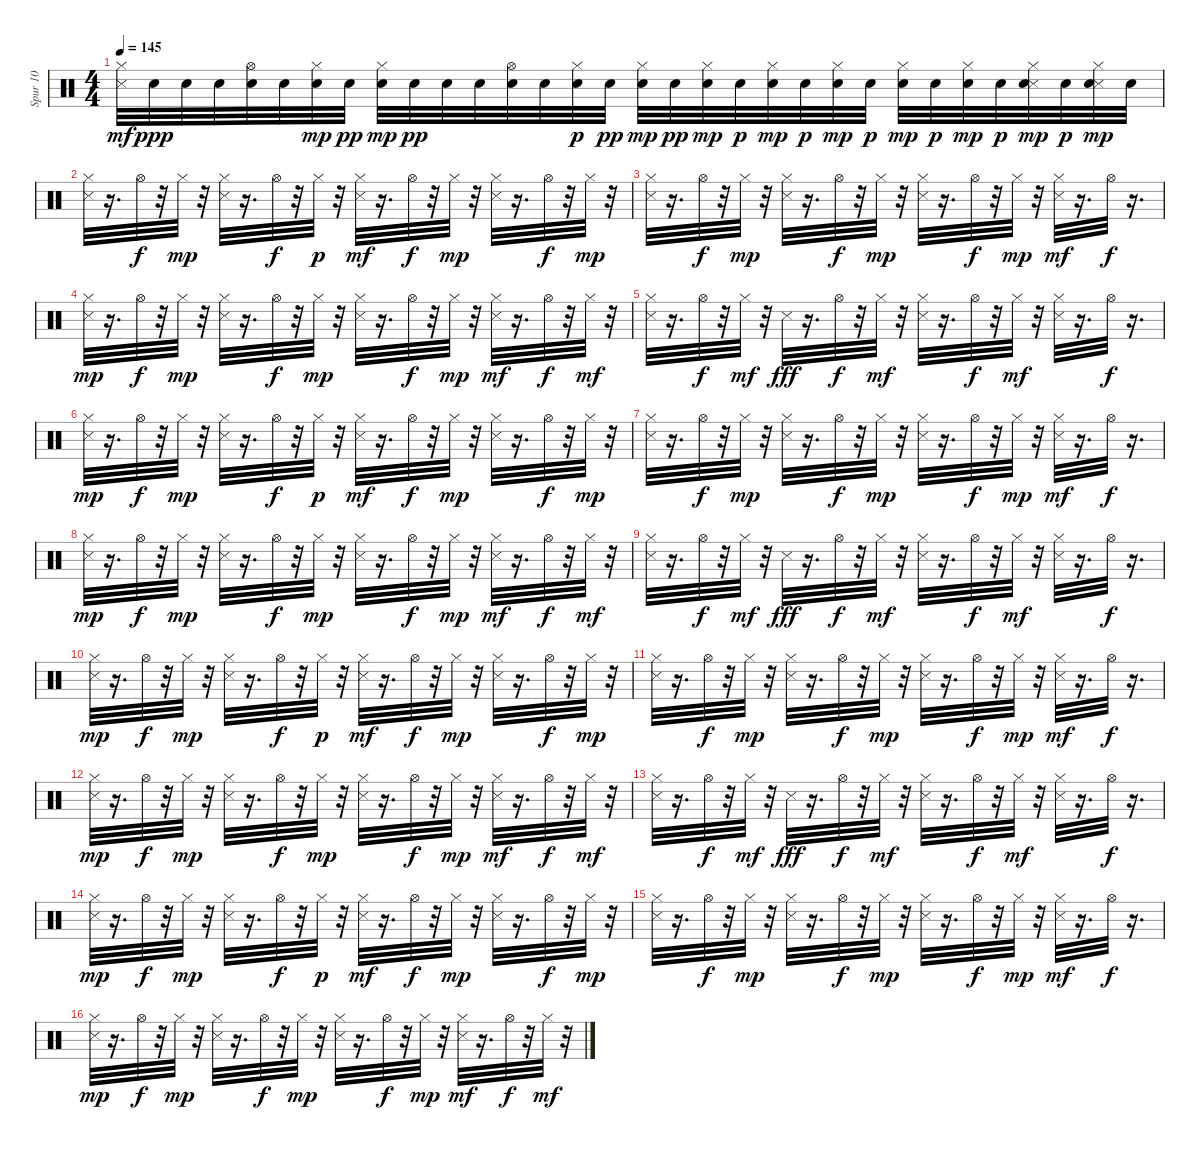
\track ("Spur 10" "Spur 10") {instrument percussion}
\staff {score}
\articulation defaults
\ts (4 4)
\tempo 145
\clef neutral
\ks c
("Metronome (hit)" "Hi-Hat (closed)").32{dy mf} "Snare (hit) 2".32{dy ppp} "Snare (hit) 2".32 "Snare (hit) 2".32 ("Snare (hit) 2" "Hi-Hat (open)").32 "Snare (hit) 2".32 ("Snare (hit) 2" "Hi-Hat (closed)").32{dy mp} "Snare (hit) 2".32{dy pp} ("Snare (hit) 2" "Hi-Hat (closed)").32{dy mp} "Snare (hit) 2".32{dy pp} "Snare (hit) 2".32 "Snare (hit) 2".32 ("Snare (hit) 2" "Hi-Hat (open)").32 "Snare (hit) 2".32 ("Snare (hit) 2" "Hi-Hat (closed)").32{dy p} "Snare (hit) 2".32{dy pp} ("Snare (hit) 2" "Hi-Hat (closed)").32{dy mp} "Snare (hit) 2".32{dy pp} ("Snare (hit) 2" "Hi-Hat (closed)").32{dy mp} "Snare (hit) 2".32{dy p} ("Snare (hit) 2" "Hi-Hat (closed)").32{dy mp} "Snare (hit) 2".32{dy p} ("Snare (hit) 2" "Hi-Hat (closed)").32{dy mp} "Snare (hit) 2".32{dy p} ("Snare (hit) 2" "Hi-Hat (closed)").32{dy mp} "Snare (hit) 2".32{dy p} ("Snare (hit) 2" "Hi-Hat (closed)").32{dy mp} "Snare (hit) 2".32{dy p} ("Metronome (hit)" "Snare (hit) 2" "Hi-Hat (closed)").32{dy mp} "Snare (hit) 2".32{dy p} ("Metronome (hit)" "Snare (hit) 2" "Hi-Hat (closed)").32{dy mp} "Snare (hit) 2".32 |
("Metronome (hit)" "Hi-Hat (closed)").32 r.16{d} "Hi-Hat (open)".32{dy f} r.32 "Hi-Hat (closed)".32{dy mp} r.32 ("Metronome (hit)" "Hi-Hat (closed)").32 r.16{d} "Hi-Hat (open)".32{dy f} r.32 "Hi-Hat (closed)".32{dy p} r.32 ("Metronome (hit)" "Hi-Hat (closed)").32{dy mf} r.16{d} "Hi-Hat (open)".32{dy f} r.32 "Hi-Hat (closed)".32{dy mp} r.32 ("Metronome (hit)" "Hi-Hat (closed)").32 r.16{d} "Hi-Hat (open)".32{dy f} r.32 "Hi-Hat (closed)".32{dy mp} r.32 |
("Metronome (hit)" "Hi-Hat (closed)").32 r.16{d} "Hi-Hat (open)".32{dy f} r.32 "Hi-Hat (closed)".32{dy mp} r.32 ("Metronome (hit)" "Hi-Hat (closed)").32 r.16{d} "Hi-Hat (open)".32{dy f} r.32 "Hi-Hat (closed)".32{dy mp} r.32 ("Metronome (hit)" "Hi-Hat (closed)").32 r.16{d} "Hi-Hat (open)".32{dy f} r.32 "Hi-Hat (closed)".32{dy mp} r.32 ("Metronome (hit)" "Hi-Hat (closed)").32{dy mf} r.16{d} "Hi-Hat (open)".32{dy f} r.16{d} |
("Metronome (hit)" "Hi-Hat (closed)").32{dy mp} r.16{d} "Hi-Hat (open)".32{dy f} r.32 "Hi-Hat (closed)".32{dy mp} r.32 ("Metronome (hit)" "Hi-Hat (closed)").32 r.16{d} "Hi-Hat (open)".32{dy f} r.32 "Hi-Hat (closed)".32{dy mp} r.32 ("Metronome (hit)" "Hi-Hat (closed)").32 r.16{d} "Hi-Hat (open)".32{dy f} r.32 "Hi-Hat (closed)".32{dy mp} r.32 ("Metronome (hit)" "Hi-Hat (closed)").32{dy mf} r.16{d} "Hi-Hat (open)".32{dy f} r.32 "Hi-Hat (closed)".32{dy mf} r.32 |
("Metronome (hit)" "Hi-Hat (closed)").32 r.16{d} "Hi-Hat (open)".32{dy f} r.32 "Hi-Hat (closed)".32{dy mf} r.32 "Metronome (hit)".32{dy fff} r.16{d} "Hi-Hat (open)".32{dy f} r.32 "Hi-Hat (closed)".32{dy mf} r.32 ("Metronome (hit)" "Hi-Hat (closed)").32 r.16{d} "Hi-Hat (open)".32{dy f} r.32 "Hi-Hat (closed)".32{dy mf} r.32 ("Metronome (hit)" "Hi-Hat (closed)").32 r.16{d} "Hi-Hat (open)".32{dy f} r.16{d} |
("Metronome (hit)" "Hi-Hat (closed)").32{dy mp} r.16{d} "Hi-Hat (open)".32{dy f} r.32 "Hi-Hat (closed)".32{dy mp} r.32 ("Metronome (hit)" "Hi-Hat (closed)").32 r.16{d} "Hi-Hat (open)".32{dy f} r.32 "Hi-Hat (closed)".32{dy p} r.32 ("Metronome (hit)" "Hi-Hat (closed)").32{dy mf} r.16{d} "Hi-Hat (open)".32{dy f} r.32 "Hi-Hat (closed)".32{dy mp} r.32 ("Metronome (hit)" "Hi-Hat (closed)").32 r.16{d} "Hi-Hat (open)".32{dy f} r.32 "Hi-Hat (closed)".32{dy mp} r.32 |
("Metronome (hit)" "Hi-Hat (closed)").32 r.16{d} "Hi-Hat (open)".32{dy f} r.32 "Hi-Hat (closed)".32{dy mp} r.32 ("Metronome (hit)" "Hi-Hat (closed)").32 r.16{d} "Hi-Hat (open)".32{dy f} r.32 "Hi-Hat (closed)".32{dy mp} r.32 ("Metronome (hit)" "Hi-Hat (closed)").32 r.16{d} "Hi-Hat (open)".32{dy f} r.32 "Hi-Hat (closed)".32{dy mp} r.32 ("Metronome (hit)" "Hi-Hat (closed)").32{dy mf} r.16{d} "Hi-Hat (open)".32{dy f} r.16{d} |
("Metronome (hit)" "Hi-Hat (closed)").32{dy mp} r.16{d} "Hi-Hat (open)".32{dy f} r.32 "Hi-Hat (closed)".32{dy mp} r.32 ("Metronome (hit)" "Hi-Hat (closed)").32 r.16{d} "Hi-Hat (open)".32{dy f} r.32 "Hi-Hat (closed)".32{dy mp} r.32 ("Metronome (hit)" "Hi-Hat (closed)").32 r.16{d} "Hi-Hat (open)".32{dy f} r.32 "Hi-Hat (closed)".32{dy mp} r.32 ("Metronome (hit)" "Hi-Hat (closed)").32{dy mf} r.16{d} "Hi-Hat (open)".32{dy f} r.32 "Hi-Hat (closed)".32{dy mf} r.32 |
("Metronome (hit)" "Hi-Hat (closed)").32 r.16{d} "Hi-Hat (open)".32{dy f} r.32 "Hi-Hat (closed)".32{dy mf} r.32 "Metronome (hit)".32{dy fff} r.16{d} "Hi-Hat (open)".32{dy f} r.32 "Hi-Hat (closed)".32{dy mf} r.32 ("Metronome (hit)" "Hi-Hat (closed)").32 r.16{d} "Hi-Hat (open)".32{dy f} r.32 "Hi-Hat (closed)".32{dy mf} r.32 ("Metronome (hit)" "Hi-Hat (closed)").32 r.16{d} "Hi-Hat (open)".32{dy f} r.16{d} |
("Metronome (hit)" "Hi-Hat (closed)").32{dy mp} r.16{d} "Hi-Hat (open)".32{dy f} r.32 "Hi-Hat (closed)".32{dy mp} r.32 ("Metronome (hit)" "Hi-Hat (closed)").32 r.16{d} "Hi-Hat (open)".32{dy f} r.32 "Hi-Hat (closed)".32{dy p} r.32 ("Metronome (hit)" "Hi-Hat (closed)").32{dy mf} r.16{d} "Hi-Hat (open)".32{dy f} r.32 "Hi-Hat (closed)".32{dy mp} r.32 ("Metronome (hit)" "Hi-Hat (closed)").32 r.16{d} "Hi-Hat (open)".32{dy f} r.32 "Hi-Hat (closed)".32{dy mp} r.32 |
("Metronome (hit)" "Hi-Hat (closed)").32 r.16{d} "Hi-Hat (open)".32{dy f} r.32 "Hi-Hat (closed)".32{dy mp} r.32 ("Metronome (hit)" "Hi-Hat (closed)").32 r.16{d} "Hi-Hat (open)".32{dy f} r.32 "Hi-Hat (closed)".32{dy mp} r.32 ("Metronome (hit)" "Hi-Hat (closed)").32 r.16{d} "Hi-Hat (open)".32{dy f} r.32 "Hi-Hat (closed)".32{dy mp} r.32 ("Metronome (hit)" "Hi-Hat (closed)").32{dy mf} r.16{d} "Hi-Hat (open)".32{dy f} r.16{d} |
("Metronome (hit)" "Hi-Hat (closed)").32{dy mp} r.16{d} "Hi-Hat (open)".32{dy f} r.32 "Hi-Hat (closed)".32{dy mp} r.32 ("Metronome (hit)" "Hi-Hat (closed)").32 r.16{d} "Hi-Hat (open)".32{dy f} r.32 "Hi-Hat (closed)".32{dy mp} r.32 ("Metronome (hit)" "Hi-Hat (closed)").32 r.16{d} "Hi-Hat (open)".32{dy f} r.32 "Hi-Hat (closed)".32{dy mp} r.32 ("Metronome (hit)" "Hi-Hat (closed)").32{dy mf} r.16{d} "Hi-Hat (open)".32{dy f} r.32 "Hi-Hat (closed)".32{dy mf} r.32 |
("Metronome (hit)" "Hi-Hat (closed)").32 r.16{d} "Hi-Hat (open)".32{dy f} r.32 "Hi-Hat (closed)".32{dy mf} r.32 "Metronome (hit)".32{dy fff} r.16{d} "Hi-Hat (open)".32{dy f} r.32 "Hi-Hat (closed)".32{dy mf} r.32 ("Metronome (hit)" "Hi-Hat (closed)").32 r.16{d} "Hi-Hat (open)".32{dy f} r.32 "Hi-Hat (closed)".32{dy mf} r.32 ("Metronome (hit)" "Hi-Hat (closed)").32 r.16{d} "Hi-Hat (open)".32{dy f} r.16{d} |
("Metronome (hit)" "Hi-Hat (closed)").32{dy mp} r.16{d} "Hi-Hat (open)".32{dy f} r.32 "Hi-Hat (closed)".32{dy mp} r.32 ("Metronome (hit)" "Hi-Hat (closed)").32 r.16{d} "Hi-Hat (open)".32{dy f} r.32 "Hi-Hat (closed)".32{dy p} r.32 ("Metronome (hit)" "Hi-Hat (closed)").32{dy mf} r.16{d} "Hi-Hat (open)".32{dy f} r.32 "Hi-Hat (closed)".32{dy mp} r.32 ("Metronome (hit)" "Hi-Hat (closed)").32 r.16{d} "Hi-Hat (open)".32{dy f} r.32 "Hi-Hat (closed)".32{dy mp} r.32 |
("Metronome (hit)" "Hi-Hat (closed)").32 r.16{d} "Hi-Hat (open)".32{dy f} r.32 "Hi-Hat (closed)".32{dy mp} r.32 ("Metronome (hit)" "Hi-Hat (closed)").32 r.16{d} "Hi-Hat (open)".32{dy f} r.32 "Hi-Hat (closed)".32{dy mp} r.32 ("Metronome (hit)" "Hi-Hat (closed)").32 r.16{d} "Hi-Hat (open)".32{dy f} r.32 "Hi-Hat (closed)".32{dy mp} r.32 ("Metronome (hit)" "Hi-Hat (closed)").32{dy mf} r.16{d} "Hi-Hat (open)".32{dy f} r.16{d} |
("Metronome (hit)" "Hi-Hat (closed)").32{dy mp} r.16{d} "Hi-Hat (open)".32{dy f} r.32 "Hi-Hat (closed)".32{dy mp} r.32 ("Metronome (hit)" "Hi-Hat (closed)").32 r.16{d} "Hi-Hat (open)".32{dy f} r.32 "Hi-Hat (closed)".32{dy mp} r.32 ("Metronome (hit)" "Hi-Hat (closed)").32 r.16{d} "Hi-Hat (open)".32{dy f} r.32 "Hi-Hat (closed)".32{dy mp} r.32 ("Metronome (hit)" "Hi-Hat (closed)").32{dy mf} r.16{d} "Hi-Hat (open)".32{dy f} r.32 "Hi-Hat (closed)".32{dy mf} r.32
